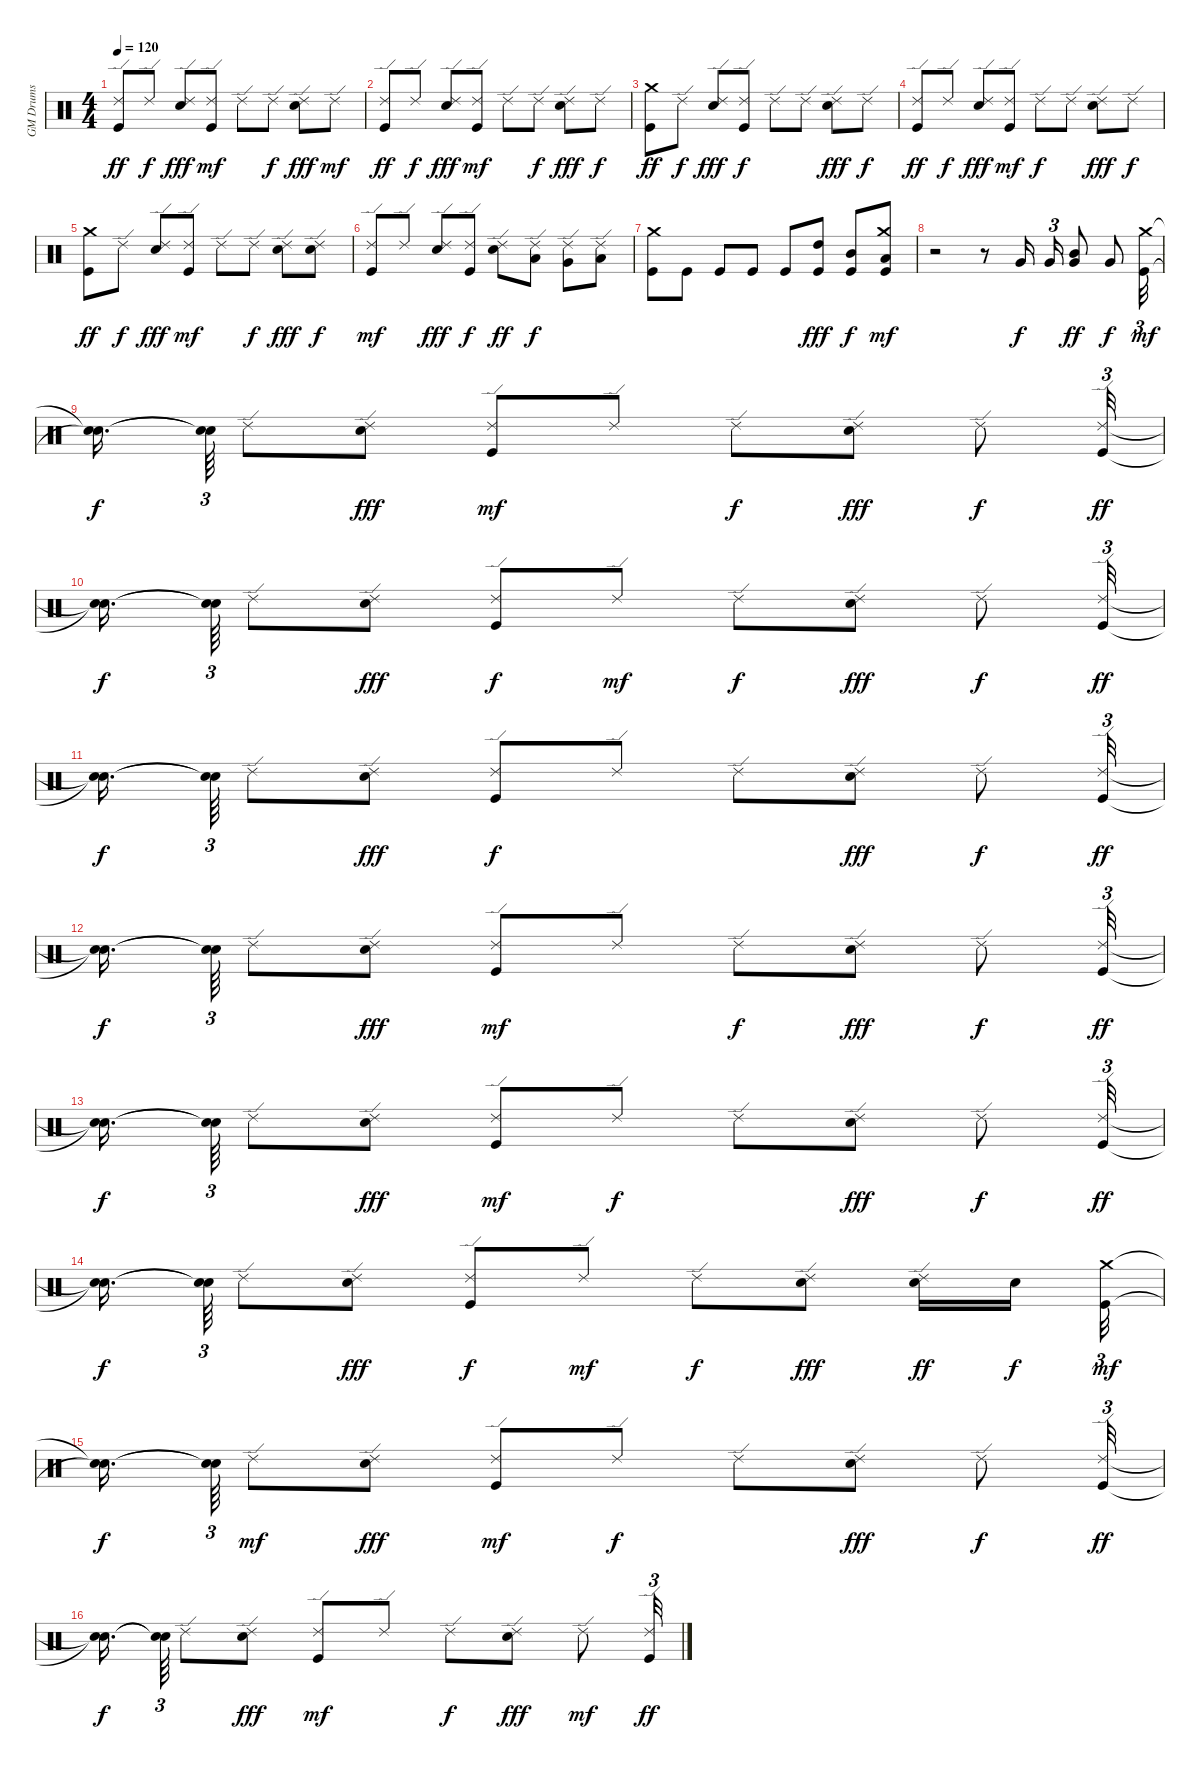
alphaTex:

\track ("GM Drums" "GM Drums") {instrument percussion}
\staff {score}
\articulation defaults
\ts (4 4)
\tempo 120
\clef neutral
\ks c
("Kick (hit)" "Ride (edge) 2").8{dy ff} "Ride (edge) 2".8{dy f} ("Snare (hit) 2" "Ride (edge) 2").8{dy fff} ("Kick (hit)" "Ride (edge) 2").8{dy mf} "Ride (edge) 2".8 "Ride (edge) 2".8{dy f} ("Snare (hit) 2" "Ride (edge) 2").8{dy fff} "Ride (edge) 2".8{dy mf} |
("Kick (hit)" "Ride (edge) 2").8{dy ff} "Ride (edge) 2".8{dy f} ("Snare (hit) 2" "Ride (edge) 2").8{dy fff} ("Kick (hit)" "Ride (edge) 2").8{dy mf} "Ride (edge) 2".8 "Ride (edge) 2".8{dy f} ("Snare (hit) 2" "Ride (edge) 2").8{dy fff} "Ride (edge) 2".8{dy f} |
("Kick (hit)" "Crash medium (hit)").8{dy ff} "Ride (edge) 2".8{dy f} ("Snare (hit) 2" "Ride (edge) 2").8{dy fff} ("Kick (hit)" "Ride (edge) 2").8{dy f} "Ride (edge) 2".8 "Ride (edge) 2".8 ("Snare (hit) 2" "Ride (edge) 2").8{dy fff} "Ride (edge) 2".8{dy f} |
("Kick (hit)" "Ride (edge) 2").8{dy ff} "Ride (edge) 2".8{dy f} ("Snare (hit) 2" "Ride (edge) 2").8{dy fff} ("Kick (hit)" "Ride (edge) 2").8{dy mf} "Ride (edge) 2".8{dy f} "Ride (edge) 2".8 ("Snare (hit) 2" "Ride (edge) 2").8{dy fff} "Ride (edge) 2".8{dy f} |
("Kick (hit)" "Crash medium (hit)").8{dy ff} "Ride (edge) 2".8{dy f} ("Snare (hit) 2" "Ride (edge) 2").8{dy fff} ("Kick (hit)" "Ride (edge) 2").8{dy mf} "Ride (edge) 2".8 "Ride (edge) 2".8{dy f} ("Snare (hit) 2" "Ride (edge) 2").8{dy fff} ("Snare (hit) 2" "Ride (edge) 2").8{dy f} |
("Kick (hit)" "Ride (edge) 2").8{dy mf} "Ride (edge) 2".8 ("Snare (hit) 2" "Ride (edge) 2").8{dy fff} ("Kick (hit)" "Ride (edge) 2").8{dy f} ("Snare (hit) 2" "Ride (edge) 2").8{dy ff} ("Low Tom (hit)" "Ride (edge) 2").8{dy f} ("Very Low Tom (hit)" "Ride (edge) 2").8 ("Low Floor Tom (hit)" "Ride (edge) 2").8 |
("Kick (hit)" "Crash medium (hit)").8 "Kick (hit)".8 "Kick (hit)".8 "Kick (hit)".8 "Kick (hit)".8 ("Kick (hit)" "High Tom (hit)").8{dy fff} ("Kick (hit)" "Mid Tom (hit)").8{dy f} ("Kick (hit)" "Low Tom (hit)" "Crash medium (hit)").8{dy mf} |
r.2 r.8 "Very Low Tom (hit)".16{dy f} "Very Low Tom (hit)".16{tu (3 2)} ("Very Low Tom (hit)" "Mid Tom (hit)").8{dy ff} "Very Low Tom (hit)".8{dy f} ("Kick (hit)" "Crash medium (hit)").32{tu (3 2) dy mf} |
("Snare (hit)"{t} "Snare (hit)"{t}).16{d dy f} ("Snare (hit)"{t} "Snare (hit)"{t}).64{tu (3 2)} "Ride (edge) 2".8 ("Snare (hit) 2" "Ride (edge) 2").8{dy fff} ("Kick (hit)" "Ride (edge) 2").8{dy mf} "Ride (edge) 2".8 "Ride (edge) 2".8{dy f} ("Snare (hit) 2" "Ride (edge) 2").8{dy fff} "Ride (edge) 2".8{dy f} ("Kick (hit)" "Ride (edge) 2").32{tu (3 2) dy ff} |
("Snare (hit)"{t} "Snare (hit)"{t}).16{d dy f} ("Snare (hit)"{t} "Snare (hit)"{t}).64{tu (3 2)} "Ride (edge) 2".8 ("Snare (hit) 2" "Ride (edge) 2").8{dy fff} ("Kick (hit)" "Ride (edge) 2").8{dy f} "Ride (edge) 2".8{dy mf} "Ride (edge) 2".8{dy f} ("Snare (hit) 2" "Ride (edge) 2").8{dy fff} "Ride (edge) 2".8{dy f} ("Kick (hit)" "Ride (edge) 2").32{tu (3 2) dy ff} |
("Snare (hit)"{t} "Snare (hit)"{t}).16{d dy f} ("Snare (hit)"{t} "Snare (hit)"{t}).64{tu (3 2)} "Ride (edge) 2".8 ("Snare (hit) 2" "Ride (edge) 2").8{dy fff} ("Kick (hit)" "Ride (edge) 2").8{dy f} "Ride (edge) 2".8 "Ride (edge) 2".8 ("Snare (hit) 2" "Ride (edge) 2").8{dy fff} "Ride (edge) 2".8{dy f} ("Kick (hit)" "Ride (edge) 2").32{tu (3 2) dy ff} |
("Snare (hit)"{t} "Snare (hit)"{t}).16{d dy f} ("Snare (hit)"{t} "Snare (hit)"{t}).64{tu (3 2)} "Ride (edge) 2".8 ("Snare (hit) 2" "Ride (edge) 2").8{dy fff} ("Kick (hit)" "Ride (edge) 2").8{dy mf} "Ride (edge) 2".8 "Ride (edge) 2".8{dy f} ("Snare (hit) 2" "Ride (edge) 2").8{dy fff} "Ride (edge) 2".8{dy f} ("Kick (hit)" "Ride (edge) 2").32{tu (3 2) dy ff} |
("Snare (hit)"{t} "Snare (hit)"{t}).16{d dy f} ("Snare (hit)"{t} "Snare (hit)"{t}).64{tu (3 2)} "Ride (edge) 2".8 ("Snare (hit) 2" "Ride (edge) 2").8{dy fff} ("Kick (hit)" "Ride (edge) 2").8{dy mf} "Ride (edge) 2".8{dy f} "Ride (edge) 2".8 ("Snare (hit) 2" "Ride (edge) 2").8{dy fff} "Ride (edge) 2".8{dy f} ("Kick (hit)" "Ride (edge) 2").32{tu (3 2) dy ff} |
("Snare (hit)"{t} "Snare (hit)"{t}).16{d dy f} ("Snare (hit)"{t} "Snare (hit)"{t}).64{tu (3 2)} "Ride (edge) 2".8 ("Snare (hit) 2" "Ride (edge) 2").8{dy fff} ("Kick (hit)" "Ride (edge) 2").8{dy f} "Ride (edge) 2".8{dy mf} "Ride (edge) 2".8{dy f} ("Snare (hit) 2" "Ride (edge) 2").8{dy fff} ("Snare (hit) 2" "Ride (edge) 2").16{dy ff} "Snare (hit) 2".16{dy f} ("Kick (hit)" "Crash medium (hit)").32{tu (3 2) dy mf} |
("Snare (hit)"{t} "Snare (hit)"{t}).16{d dy f} ("Snare (hit)"{t} "Snare (hit)"{t}).64{tu (3 2)} "Ride (edge) 2".8{dy mf} ("Snare (hit) 2" "Ride (edge) 2").8{dy fff} ("Kick (hit)" "Ride (edge) 2").8{dy mf} "Ride (edge) 2".8{dy f} "Ride (edge) 2".8 ("Snare (hit) 2" "Ride (edge) 2").8{dy fff} "Ride (edge) 2".8{dy f} ("Kick (hit)" "Ride (edge) 2").32{tu (3 2) dy ff} |
("Snare (hit)"{t} "Snare (hit)"{t}).16{d dy f} ("Snare (hit)"{t} "Snare (hit)"{t}).64{tu (3 2)} "Ride (edge) 2".8 ("Snare (hit) 2" "Ride (edge) 2").8{dy fff} ("Kick (hit)" "Ride (edge) 2").8{dy mf} "Ride (edge) 2".8 "Ride (edge) 2".8{dy f} ("Snare (hit) 2" "Ride (edge) 2").8{dy fff} "Ride (edge) 2".8{dy mf} ("Kick (hit)" "Ride (edge) 2").32{tu (3 2) dy ff}
